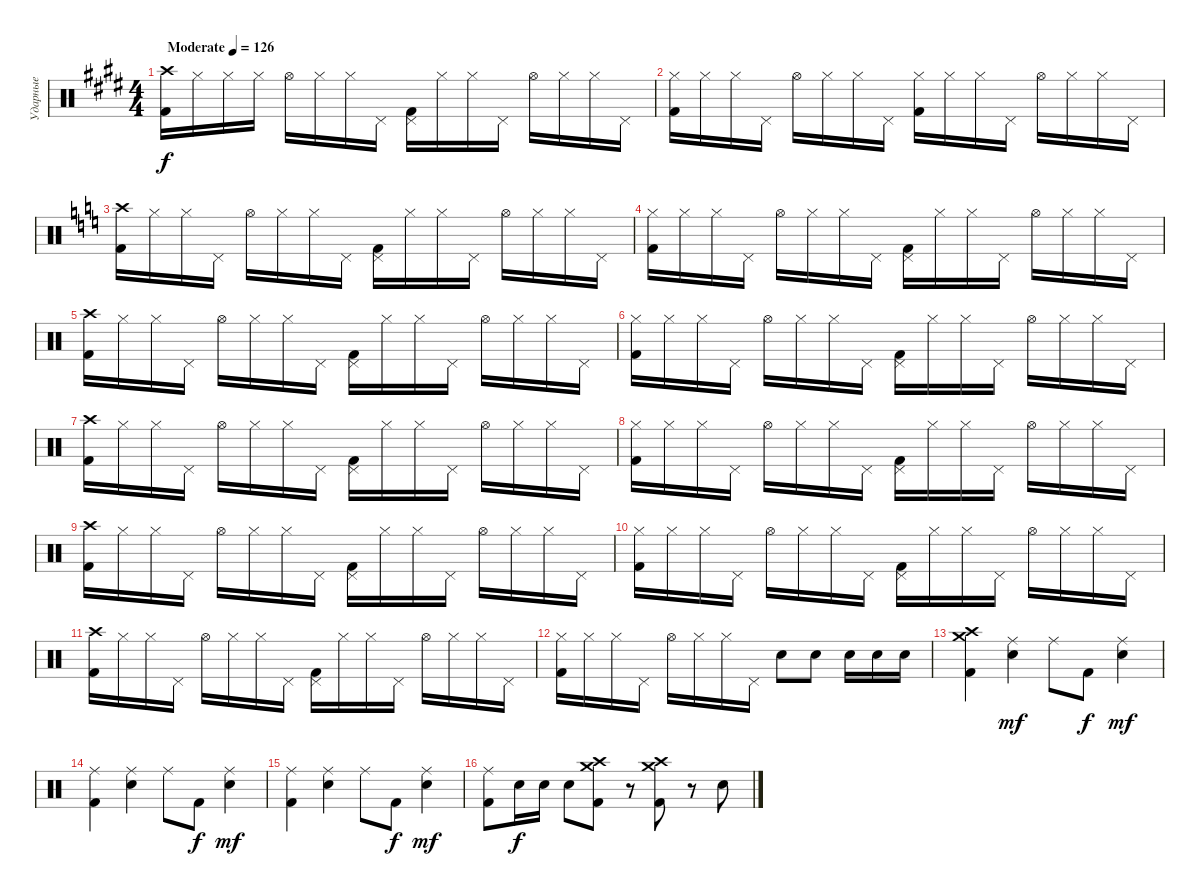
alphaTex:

\track ("Ударные" "Ударные") {instrument percussion}
\staff {score}
\articulation defaults
\ts (4 4)
\tempo (126 "Moderate")
\clef neutral
\ks e
("Crash high (hit)" "Kick (hit) 2").16{dy f} "Hi-Hat (closed)".16 "Hi-Hat (closed)".16 "Hi-Hat (closed)".16 "Hi-Hat (open)".16 "Hi-Hat (closed)".16 "Hi-Hat (closed)".16 "Pedal Hi-Hat (hit)".16 ("Pedal Hi-Hat (hit)" "Kick (hit) 2").16 "Hi-Hat (closed)".16 "Hi-Hat (closed)".16 "Pedal Hi-Hat (hit)".16 "Hi-Hat (open)".16 "Hi-Hat (closed)".16 "Hi-Hat (closed)".16 "Pedal Hi-Hat (hit)".16 |
("Hi-Hat (closed)" "Kick (hit) 2").16 "Hi-Hat (closed)".16 "Hi-Hat (closed)".16 "Pedal Hi-Hat (hit)".16 "Hi-Hat (open)".16 "Hi-Hat (closed)".16 "Hi-Hat (closed)".16 "Pedal Hi-Hat (hit)".16 ("Hi-Hat (closed)" "Kick (hit) 2").16 "Hi-Hat (closed)".16 "Hi-Hat (closed)".16 "Pedal Hi-Hat (hit)".16 "Hi-Hat (open)".16 "Hi-Hat (closed)".16 "Hi-Hat (closed)".16 "Pedal Hi-Hat (hit)".16 |
\ks c
("Crash high (hit)" "Kick (hit) 2").16 "Hi-Hat (closed)".16 "Hi-Hat (closed)".16 "Pedal Hi-Hat (hit)".16 "Hi-Hat (open)".16 "Hi-Hat (closed)".16 "Hi-Hat (closed)".16 "Pedal Hi-Hat (hit)".16 ("Pedal Hi-Hat (hit)" "Kick (hit) 2").16 "Hi-Hat (closed)".16 "Hi-Hat (closed)".16 "Pedal Hi-Hat (hit)".16 "Hi-Hat (open)".16 "Hi-Hat (closed)".16 "Hi-Hat (closed)".16 "Pedal Hi-Hat (hit)".16 |
("Hi-Hat (closed)" "Kick (hit) 2").16 "Hi-Hat (closed)".16 "Hi-Hat (closed)".16 "Pedal Hi-Hat (hit)".16 "Hi-Hat (open)".16 "Hi-Hat (closed)".16 "Hi-Hat (closed)".16 "Pedal Hi-Hat (hit)".16 ("Pedal Hi-Hat (hit)" "Kick (hit) 2").16 "Hi-Hat (closed)".16 "Hi-Hat (closed)".16 "Pedal Hi-Hat (hit)".16 "Hi-Hat (open)".16 "Hi-Hat (closed)".16 "Hi-Hat (closed)".16 "Pedal Hi-Hat (hit)".16 |
("Crash high (hit)" "Kick (hit) 2").16 "Hi-Hat (closed)".16 "Hi-Hat (closed)".16 "Pedal Hi-Hat (hit)".16 "Hi-Hat (open)".16 "Hi-Hat (closed)".16 "Hi-Hat (closed)".16 "Pedal Hi-Hat (hit)".16 ("Pedal Hi-Hat (hit)" "Kick (hit) 2").16 "Hi-Hat (closed)".16 "Hi-Hat (closed)".16 "Pedal Hi-Hat (hit)".16 "Hi-Hat (open)".16 "Hi-Hat (closed)".16 "Hi-Hat (closed)".16 "Pedal Hi-Hat (hit)".16 |
("Hi-Hat (closed)" "Kick (hit) 2").16 "Hi-Hat (closed)".16 "Hi-Hat (closed)".16 "Pedal Hi-Hat (hit)".16 "Hi-Hat (open)".16 "Hi-Hat (closed)".16 "Hi-Hat (closed)".16 "Pedal Hi-Hat (hit)".16 ("Pedal Hi-Hat (hit)" "Kick (hit) 2").16 "Hi-Hat (closed)".16 "Hi-Hat (closed)".16 "Pedal Hi-Hat (hit)".16 "Hi-Hat (open)".16 "Hi-Hat (closed)".16 "Hi-Hat (closed)".16 "Pedal Hi-Hat (hit)".16 |
("Crash high (hit)" "Kick (hit) 2").16 "Hi-Hat (closed)".16 "Hi-Hat (closed)".16 "Pedal Hi-Hat (hit)".16 "Hi-Hat (open)".16 "Hi-Hat (closed)".16 "Hi-Hat (closed)".16 "Pedal Hi-Hat (hit)".16 ("Pedal Hi-Hat (hit)" "Kick (hit) 2").16 "Hi-Hat (closed)".16 "Hi-Hat (closed)".16 "Pedal Hi-Hat (hit)".16 "Hi-Hat (open)".16 "Hi-Hat (closed)".16 "Hi-Hat (closed)".16 "Pedal Hi-Hat (hit)".16 |
("Hi-Hat (closed)" "Kick (hit) 2").16 "Hi-Hat (closed)".16 "Hi-Hat (closed)".16 "Pedal Hi-Hat (hit)".16 "Hi-Hat (open)".16 "Hi-Hat (closed)".16 "Hi-Hat (closed)".16 "Pedal Hi-Hat (hit)".16 ("Pedal Hi-Hat (hit)" "Kick (hit) 2").16 "Hi-Hat (closed)".16 "Hi-Hat (closed)".16 "Pedal Hi-Hat (hit)".16 "Hi-Hat (open)".16 "Hi-Hat (closed)".16 "Hi-Hat (closed)".16 "Pedal Hi-Hat (hit)".16 |
("Crash high (hit)" "Kick (hit) 2").16 "Hi-Hat (closed)".16 "Hi-Hat (closed)".16 "Pedal Hi-Hat (hit)".16 "Hi-Hat (open)".16 "Hi-Hat (closed)".16 "Hi-Hat (closed)".16 "Pedal Hi-Hat (hit)".16 ("Pedal Hi-Hat (hit)" "Kick (hit) 2").16 "Hi-Hat (closed)".16 "Hi-Hat (closed)".16 "Pedal Hi-Hat (hit)".16 "Hi-Hat (open)".16 "Hi-Hat (closed)".16 "Hi-Hat (closed)".16 "Pedal Hi-Hat (hit)".16 |
("Hi-Hat (closed)" "Kick (hit) 2").16 "Hi-Hat (closed)".16 "Hi-Hat (closed)".16 "Pedal Hi-Hat (hit)".16 "Hi-Hat (open)".16 "Hi-Hat (closed)".16 "Hi-Hat (closed)".16 "Pedal Hi-Hat (hit)".16 ("Pedal Hi-Hat (hit)" "Kick (hit) 2").16 "Hi-Hat (closed)".16 "Hi-Hat (closed)".16 "Pedal Hi-Hat (hit)".16 "Hi-Hat (open)".16 "Hi-Hat (closed)".16 "Hi-Hat (closed)".16 "Pedal Hi-Hat (hit)".16 |
("Crash high (hit)" "Kick (hit) 2").16 "Hi-Hat (closed)".16 "Hi-Hat (closed)".16 "Pedal Hi-Hat (hit)".16 "Hi-Hat (open)".16 "Hi-Hat (closed)".16 "Hi-Hat (closed)".16 "Pedal Hi-Hat (hit)".16 ("Pedal Hi-Hat (hit)" "Kick (hit) 2").16 "Hi-Hat (closed)".16 "Hi-Hat (closed)".16 "Pedal Hi-Hat (hit)".16 "Hi-Hat (open)".16 "Hi-Hat (closed)".16 "Hi-Hat (closed)".16 "Pedal Hi-Hat (hit)".16 |
("Hi-Hat (closed)" "Kick (hit) 2").16 "Hi-Hat (closed)".16 "Hi-Hat (closed)".16 "Pedal Hi-Hat (hit)".16 "Hi-Hat (open)".16 "Hi-Hat (closed)".16 "Hi-Hat (closed)".16 "Pedal Hi-Hat (hit)".16 "Snare (hit) 2".8 "Snare (hit) 2".8 "Snare (hit) 2".16 "Snare (hit) 2".16 "Snare (hit) 2".16 |
("Kick (hit) 2" "Crash high (hit)" "Crash medium (hit)").4 ("Snare (hit) 2" "Ride (middle)").4{dy mf} "Ride (middle)".8 "Kick (hit) 2".8{dy f} ("Snare (hit) 2" "Ride (middle)").4{dy mf} |
("Kick (hit) 2" "Ride (middle)").4 ("Snare (hit) 2" "Ride (middle)").4 "Ride (middle)".8 "Kick (hit) 2".8{dy f} ("Snare (hit) 2" "Ride (middle)").4{dy mf} |
("Kick (hit) 2" "Ride (middle)").4 ("Snare (hit) 2" "Ride (middle)").4 "Ride (middle)".8 "Kick (hit) 2".8{dy f} ("Snare (hit) 2" "Ride (middle)").4{dy mf} |
("Kick (hit) 2" "Ride (middle)").8 "Snare (hit) 2".16{dy f} "Snare (hit) 2".16 "Snare (hit) 2".8 ("Kick (hit) 2" "Crash high (hit)" "Crash medium (hit)").8 r.8 ("Kick (hit) 2" "Crash high (hit)" "Crash medium (hit)").8 r.8 "Snare (hit) 2".8
